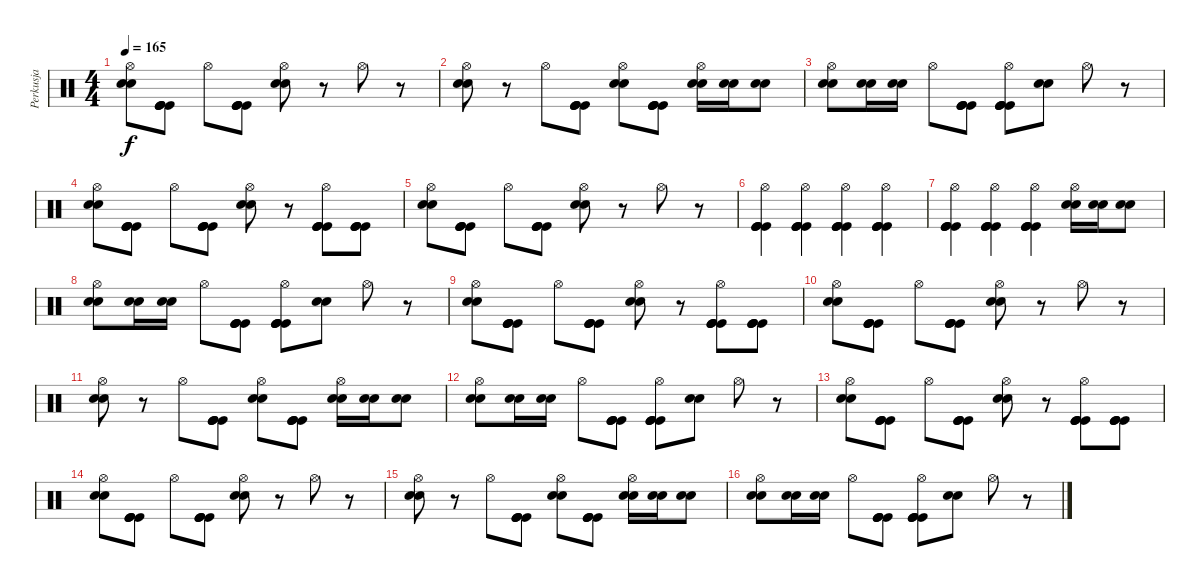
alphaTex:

\track ("Perkusja" "Perkusja") {instrument percussion}
\staff {score}
\articulation defaults
\ts (4 4)
\tempo 165
\clef neutral
\ks c
("Hi-Hat (open)" "Snare (hit) 2" "Snare (hit) 2").8{dy f} ("Kick (hit)" "Kick (hit)" "Kick (hit)" "Kick (hit)").8 "Hi-Hat (open)".8 ("Kick (hit)" "Kick (hit)" "Kick (hit)" "Kick (hit)").8 ("Hi-Hat (open)" "Snare (hit) 2" "Snare (hit) 2").8 r.8 "Hi-Hat (open)".8 r.8 |
("Hi-Hat (open)" "Snare (hit) 2" "Snare (hit) 2").8 r.8 "Hi-Hat (open)".8 ("Kick (hit)" "Kick (hit)" "Kick (hit)" "Kick (hit)").8 ("Hi-Hat (open)" "Snare (hit) 2" "Snare (hit) 2").8 ("Kick (hit)" "Kick (hit)" "Kick (hit)" "Kick (hit)").8 ("Hi-Hat (open)" "Snare (hit) 2" "Snare (hit) 2").16 ("Snare (hit) 2" "Snare (hit) 2").16 ("Snare (hit) 2" "Snare (hit) 2").8 |
("Hi-Hat (open)" "Snare (hit) 2" "Snare (hit) 2").8 ("Snare (hit) 2" "Snare (hit) 2").16 ("Snare (hit) 2" "Snare (hit) 2").16 "Hi-Hat (open)".8 ("Kick (hit)" "Kick (hit)" "Kick (hit)" "Kick (hit)").8 ("Hi-Hat (open)" "Kick (hit)" "Kick (hit)" "Kick (hit)" "Kick (hit)").8 ("Snare (hit) 2" "Snare (hit) 2").8 "Hi-Hat (open)".8 r.8 |
("Hi-Hat (open)" "Snare (hit) 2" "Snare (hit) 2").8 ("Kick (hit)" "Kick (hit)" "Kick (hit)" "Kick (hit)").8 "Hi-Hat (open)".8 ("Kick (hit)" "Kick (hit)" "Kick (hit)" "Kick (hit)").8 ("Hi-Hat (open)" "Snare (hit) 2" "Snare (hit) 2").8 r.8 ("Hi-Hat (open)" "Kick (hit)" "Kick (hit)" "Kick (hit)" "Kick (hit)").8 ("Kick (hit)" "Kick (hit)" "Kick (hit)" "Kick (hit)").8 |
("Hi-Hat (open)" "Snare (hit) 2" "Snare (hit) 2").8 ("Kick (hit)" "Kick (hit)" "Kick (hit)" "Kick (hit)").8 "Hi-Hat (open)".8 ("Kick (hit)" "Kick (hit)" "Kick (hit)" "Kick (hit)").8 ("Hi-Hat (open)" "Snare (hit) 2" "Snare (hit) 2").8 r.8 "Hi-Hat (open)".8 r.8 |
("Hi-Hat (open)" "Kick (hit)" "Kick (hit)" "Kick (hit)" "Kick (hit)").4 ("Hi-Hat (open)" "Kick (hit)" "Kick (hit)" "Kick (hit)" "Kick (hit)").4 ("Hi-Hat (open)" "Kick (hit)" "Kick (hit)" "Kick (hit)" "Kick (hit)").4 ("Hi-Hat (open)" "Kick (hit)" "Kick (hit)" "Kick (hit)" "Kick (hit)").4 |
("Hi-Hat (open)" "Kick (hit)" "Kick (hit)" "Kick (hit)" "Kick (hit)").4 ("Hi-Hat (open)" "Kick (hit)" "Kick (hit)" "Kick (hit)" "Kick (hit)").4 ("Hi-Hat (open)" "Kick (hit)" "Kick (hit)" "Kick (hit)" "Kick (hit)").4 ("Hi-Hat (open)" "Snare (hit) 2" "Snare (hit) 2").16 ("Snare (hit) 2" "Snare (hit) 2").16 ("Snare (hit) 2" "Snare (hit) 2").8 |
("Hi-Hat (open)" "Snare (hit) 2" "Snare (hit) 2").8 ("Snare (hit) 2" "Snare (hit) 2").16 ("Snare (hit) 2" "Snare (hit) 2").16 "Hi-Hat (open)".8 ("Kick (hit)" "Kick (hit)" "Kick (hit)" "Kick (hit)").8 ("Hi-Hat (open)" "Kick (hit)" "Kick (hit)" "Kick (hit)" "Kick (hit)").8 ("Snare (hit) 2" "Snare (hit) 2").8 "Hi-Hat (open)".8 r.8 |
("Hi-Hat (open)" "Snare (hit) 2" "Snare (hit) 2").8 ("Kick (hit)" "Kick (hit)" "Kick (hit)" "Kick (hit)").8 "Hi-Hat (open)".8 ("Kick (hit)" "Kick (hit)" "Kick (hit)" "Kick (hit)").8 ("Hi-Hat (open)" "Snare (hit) 2" "Snare (hit) 2").8 r.8 ("Hi-Hat (open)" "Kick (hit)" "Kick (hit)" "Kick (hit)" "Kick (hit)").8 ("Kick (hit)" "Kick (hit)" "Kick (hit)" "Kick (hit)").8 |
("Hi-Hat (open)" "Snare (hit) 2" "Snare (hit) 2").8 ("Kick (hit)" "Kick (hit)" "Kick (hit)" "Kick (hit)").8 "Hi-Hat (open)".8 ("Kick (hit)" "Kick (hit)" "Kick (hit)" "Kick (hit)").8 ("Hi-Hat (open)" "Snare (hit) 2" "Snare (hit) 2").8 r.8 "Hi-Hat (open)".8 r.8 |
("Hi-Hat (open)" "Snare (hit) 2" "Snare (hit) 2").8 r.8 "Hi-Hat (open)".8 ("Kick (hit)" "Kick (hit)" "Kick (hit)" "Kick (hit)").8 ("Hi-Hat (open)" "Snare (hit) 2" "Snare (hit) 2").8 ("Kick (hit)" "Kick (hit)" "Kick (hit)" "Kick (hit)").8 ("Hi-Hat (open)" "Snare (hit) 2" "Snare (hit) 2").16 ("Snare (hit) 2" "Snare (hit) 2").16 ("Snare (hit) 2" "Snare (hit) 2").8 |
("Hi-Hat (open)" "Snare (hit) 2" "Snare (hit) 2").8 ("Snare (hit) 2" "Snare (hit) 2").16 ("Snare (hit) 2" "Snare (hit) 2").16 "Hi-Hat (open)".8 ("Kick (hit)" "Kick (hit)" "Kick (hit)" "Kick (hit)").8 ("Hi-Hat (open)" "Kick (hit)" "Kick (hit)" "Kick (hit)" "Kick (hit)").8 ("Snare (hit) 2" "Snare (hit) 2").8 "Hi-Hat (open)".8 r.8 |
("Hi-Hat (open)" "Snare (hit) 2" "Snare (hit) 2").8 ("Kick (hit)" "Kick (hit)" "Kick (hit)" "Kick (hit)").8 "Hi-Hat (open)".8 ("Kick (hit)" "Kick (hit)" "Kick (hit)" "Kick (hit)").8 ("Hi-Hat (open)" "Snare (hit) 2" "Snare (hit) 2").8 r.8 ("Hi-Hat (open)" "Kick (hit)" "Kick (hit)" "Kick (hit)" "Kick (hit)").8 ("Kick (hit)" "Kick (hit)" "Kick (hit)" "Kick (hit)").8 |
("Hi-Hat (open)" "Snare (hit) 2" "Snare (hit) 2").8 ("Kick (hit)" "Kick (hit)" "Kick (hit)" "Kick (hit)").8 "Hi-Hat (open)".8 ("Kick (hit)" "Kick (hit)" "Kick (hit)" "Kick (hit)").8 ("Hi-Hat (open)" "Snare (hit) 2" "Snare (hit) 2").8 r.8 "Hi-Hat (open)".8 r.8 |
("Hi-Hat (open)" "Snare (hit) 2" "Snare (hit) 2").8 r.8 "Hi-Hat (open)".8 ("Kick (hit)" "Kick (hit)" "Kick (hit)" "Kick (hit)").8 ("Hi-Hat (open)" "Snare (hit) 2" "Snare (hit) 2").8 ("Kick (hit)" "Kick (hit)" "Kick (hit)" "Kick (hit)").8 ("Hi-Hat (open)" "Snare (hit) 2" "Snare (hit) 2").16 ("Snare (hit) 2" "Snare (hit) 2").16 ("Snare (hit) 2" "Snare (hit) 2").8 |
("Hi-Hat (open)" "Snare (hit) 2" "Snare (hit) 2").8 ("Snare (hit) 2" "Snare (hit) 2").16 ("Snare (hit) 2" "Snare (hit) 2").16 "Hi-Hat (open)".8 ("Kick (hit)" "Kick (hit)" "Kick (hit)" "Kick (hit)").8 ("Hi-Hat (open)" "Kick (hit)" "Kick (hit)" "Kick (hit)" "Kick (hit)").8 ("Snare (hit) 2" "Snare (hit) 2").8 "Hi-Hat (open)".8 r.8
